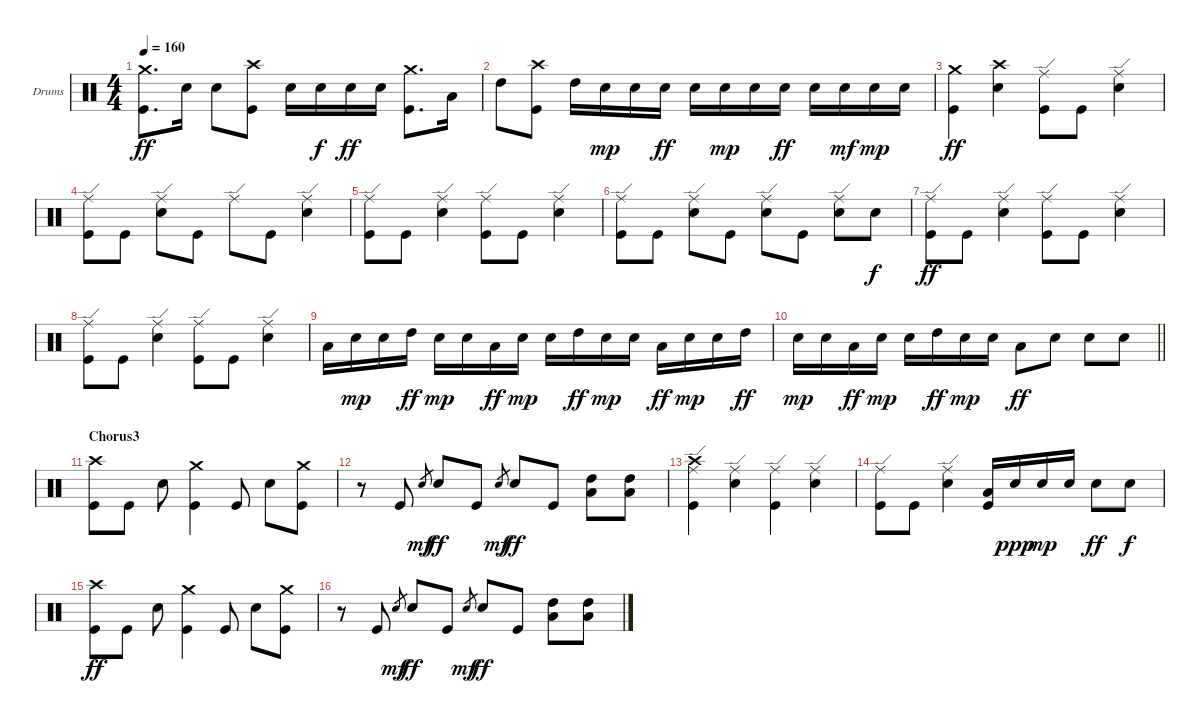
\bracketExtendMode groupsimilarinstruments
\firstSystemTrackNameOrientation horizontal
\otherSystemsTrackNameOrientation horizontal
\track ("Jean-Paul Gaster" "Drums") {instrument percussion}
\staff {score}
\articulation defaults
\ts (4 4)
\tempo 160
\clef neutral
\ks c
("Crash medium (hit)" "Kick (hit)").8{d dy ff} "Snare (hit) 2".16 "Snare (hit) 2".8 ("Crash high (hit)" "Kick (hit)").8 "Snare (hit) 2".16 "Snare (hit) 2".16{dy f} "Snare (hit) 2".16{dy ff} "Snare (hit) 2".16 ("Crash medium (hit)" "Kick (hit)").8{d} "Low Tom (hit)".16 |
"High Tom (hit)".8 ("Crash high (hit)" "Kick (hit)").8 "High Tom (hit)".16 "Snare (hit) 2".16{dy mp} "Snare (hit) 2".16 "Snare (hit) 2".16{dy ff} "Snare (hit) 2".16 "Snare (hit) 2".16{dy mp} "Snare (hit) 2".16 "Snare (hit) 2".16{dy ff} "Snare (hit) 2".16 "Snare (hit) 2".16{dy mf} "Snare (hit) 2".16{dy mp} "Snare (hit) 2".16 |
("Crash medium (hit)" "Kick (hit)").4{dy ff} ("Crash high (hit)" "Snare (hit) 2").4 ("Ride (edge)" "Kick (hit)").8 "Kick (hit)".8 ("Ride (edge)" "Snare (hit) 2").4 |
("Ride (edge)" "Kick (hit)").8 "Kick (hit)".8 ("Ride (edge)" "Snare (hit) 2").8 "Kick (hit)".8 "Ride (edge)".8 "Kick (hit)".8 ("Ride (edge)" "Snare (hit) 2").4 |
("Ride (edge)" "Kick (hit)").8 "Kick (hit)".8 ("Ride (edge)" "Snare (hit) 2").4 ("Ride (edge)" "Kick (hit)").8 "Kick (hit)".8 ("Ride (edge)" "Snare (hit) 2").4 |
("Ride (edge)" "Kick (hit)").8 "Kick (hit)".8 ("Ride (edge)" "Snare (hit) 2").8 "Kick (hit)".8 ("Ride (edge)" "Snare (hit) 2").8 "Kick (hit)".8 ("Ride (edge)" "Snare (hit) 2").8 "Snare (hit) 2".8{dy f} |
("Ride (edge)" "Kick (hit)").8{dy ff} "Kick (hit)".8 ("Ride (edge)" "Snare (hit) 2").4 ("Ride (edge)" "Kick (hit)").8 "Kick (hit)".8 ("Ride (edge)" "Snare (hit) 2").4 |
("Ride (edge)" "Kick (hit)").8 "Kick (hit)".8 ("Ride (edge)" "Snare (hit) 2").4 ("Ride (edge)" "Kick (hit)").8 "Kick (hit)".8 ("Ride (edge)" "Snare (hit) 2").4 |
"Low Tom (hit)".16 "Snare (hit) 2".16{dy mp} "Snare (hit) 2".16 "High Tom (hit)".16{dy ff} "Snare (hit) 2".16{dy mp} "Snare (hit) 2".16 "Low Tom (hit)".16{dy ff} "Snare (hit) 2".16{dy mp} "Snare (hit) 2".16 "High Tom (hit)".16{dy ff} "Snare (hit) 2".16{dy mp} "Snare (hit) 2".16 "Low Tom (hit)".16{dy ff} "Snare (hit) 2".16{dy mp} "Snare (hit) 2".16 "High Tom (hit)".16{dy ff} |
\barLineRight lightlight "Snare (hit) 2".16{dy mp} "Snare (hit) 2".16 "Low Tom (hit)".16{dy ff} "Snare (hit) 2".16{dy mp} "Snare (hit) 2".16 "High Tom (hit)".16{dy ff} "Snare (hit) 2".16{dy mp} "Snare (hit) 2".16 "Low Tom (hit)".8{dy ff} "Snare (hit) 2".8 "Snare (hit) 2".8 "Snare (hit) 2".8
|
\section ("" "Chorus3")
("Crash high (hit)" "Kick (hit)").8 "Kick (hit)".8 "Snare (hit) 2".8 ("Crash medium (hit)" "Kick (hit)").4 "Kick (hit)".8 "Snare (hit) 2".8 ("Crash medium (hit)" "Kick (hit)").8 |
r.8 "Kick (hit)".8 "Snare (hit) 2".8{gr dy mf} "Snare (hit) 2".8{dy ff} "Kick (hit)".8 "Snare (hit) 2".8{gr dy mf} "Snare (hit) 2".8{dy ff} "Kick (hit)".8 ("High Tom (hit)" "Low Tom (hit)").8 ("High Tom (hit)" "Low Tom (hit)").8 |
("Ride (edge)" "Crash high (hit)" "Kick (hit)").4 ("Ride (edge)" "Snare (hit) 2").4 ("Ride (edge)" "Kick (hit)").4 ("Ride (edge)" "Snare (hit) 2").4 |
("Ride (edge)" "Kick (hit)").8 "Kick (hit)".8 ("Ride (edge)" "Snare (hit) 2").4 ("Low Tom (hit)" "Kick (hit)").16 "Snare (hit) 2".16{dy ppp} "Snare (hit) 2".16{dy mp} "Snare (hit) 2".16 "Snare (hit) 2".8{dy ff} "Snare (hit) 2".8{dy f} |
("Crash high (hit)" "Kick (hit)").8{dy ff} "Kick (hit)".8 "Snare (hit) 2".8 ("Crash medium (hit)" "Kick (hit)").4 "Kick (hit)".8 "Snare (hit) 2".8 ("Crash medium (hit)" "Kick (hit)").8 |
r.8 "Kick (hit)".8 "Snare (hit) 2".8{gr dy mf} "Snare (hit) 2".8{dy ff} "Kick (hit)".8 "Snare (hit) 2".8{gr dy mf} "Snare (hit) 2".8{dy ff} "Kick (hit)".8 ("High Tom (hit)" "Low Tom (hit)").8 ("High Tom (hit)" "Low Tom (hit)").8
